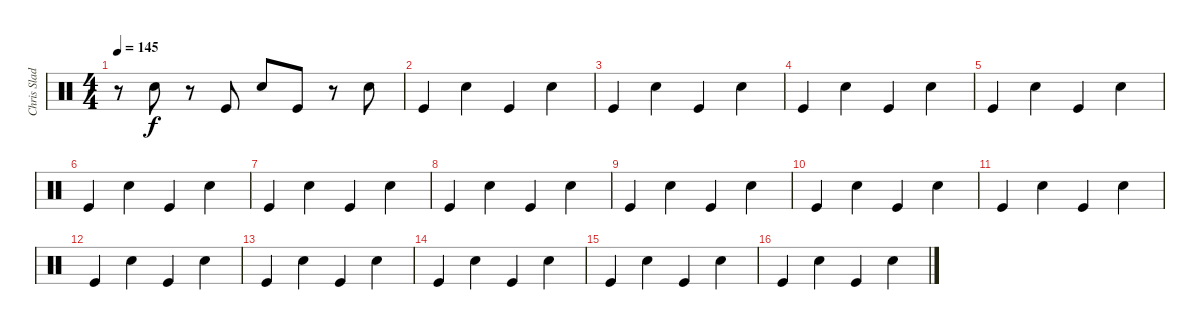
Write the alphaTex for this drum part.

\track ("Chris Slade" "Chris Slad") {instrument percussion}
\staff {score}
\articulation defaults
\ts (4 4)
\tempo 145
\clef neutral
\ks c
r.8{dy f} "Snare (hit) 2".8 r.8 "Kick (hit)".8 "Snare (hit) 2".8 "Kick (hit)".8 r.8 "Snare (hit) 2".8 |
"Kick (hit)".4 "Snare (hit) 2".4 "Kick (hit)".4 "Snare (hit) 2".4 |
"Kick (hit)".4 "Snare (hit) 2".4 "Kick (hit)".4 "Snare (hit) 2".4 |
"Kick (hit)".4 "Snare (hit) 2".4 "Kick (hit)".4 "Snare (hit) 2".4 |
"Kick (hit)".4 "Snare (hit) 2".4 "Kick (hit)".4 "Snare (hit) 2".4 |
"Kick (hit)".4 "Snare (hit) 2".4 "Kick (hit)".4 "Snare (hit) 2".4 |
"Kick (hit)".4 "Snare (hit) 2".4 "Kick (hit)".4 "Snare (hit) 2".4 |
"Kick (hit)".4 "Snare (hit) 2".4 "Kick (hit)".4 "Snare (hit) 2".4 |
"Kick (hit)".4 "Snare (hit) 2".4 "Kick (hit)".4 "Snare (hit) 2".4 |
"Kick (hit)".4 "Snare (hit) 2".4 "Kick (hit)".4 "Snare (hit) 2".4 |
"Kick (hit)".4 "Snare (hit) 2".4 "Kick (hit)".4 "Snare (hit) 2".4 |
"Kick (hit)".4 "Snare (hit) 2".4 "Kick (hit)".4 "Snare (hit) 2".4 |
"Kick (hit)".4 "Snare (hit) 2".4 "Kick (hit)".4 "Snare (hit) 2".4 |
"Kick (hit)".4 "Snare (hit) 2".4 "Kick (hit)".4 "Snare (hit) 2".4 |
"Kick (hit)".4 "Snare (hit) 2".4 "Kick (hit)".4 "Snare (hit) 2".4 |
"Kick (hit)".4 "Snare (hit) 2".4 "Kick (hit)".4 "Snare (hit) 2".4
